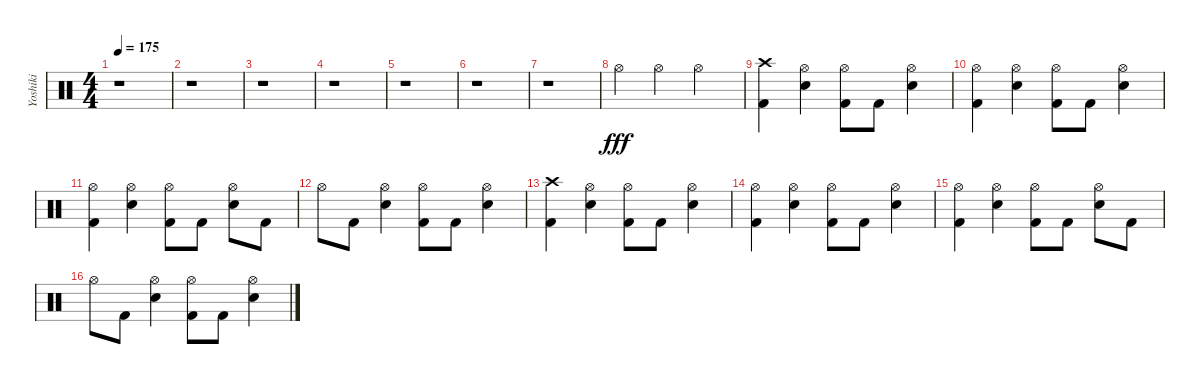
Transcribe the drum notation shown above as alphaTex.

\track ("Yoshiki" "Yoshiki") {instrument percussion}
\staff {score}
\articulation defaults
\ts (4 4)
\tempo 175
\clef neutral
\ks c
r.1{dy fff} |
r.1 |
r.1 |
r.1 |
r.1 |
r.1 |
r.1 |
"Hi-Hat (open)".4 "Hi-Hat (open)".4 "Hi-Hat (open)".2 |
("Crash high (hit)" "Kick (hit) 2").4 ("Hi-Hat (open)" "Snare (hit) 2").4 ("Hi-Hat (open)" "Kick (hit) 2").8 "Kick (hit) 2".8 ("Hi-Hat (open)" "Snare (hit) 2").4 |
("Hi-Hat (open)" "Kick (hit) 2").4 ("Hi-Hat (open)" "Snare (hit) 2").4 ("Hi-Hat (open)" "Kick (hit) 2").8 "Kick (hit) 2".8 ("Hi-Hat (open)" "Snare (hit) 2").4 |
("Hi-Hat (open)" "Kick (hit) 2").4 ("Hi-Hat (open)" "Snare (hit) 2").4 ("Hi-Hat (open)" "Kick (hit) 2").8 "Kick (hit) 2".8 ("Hi-Hat (open)" "Snare (hit) 2").8 "Kick (hit) 2".8 |
"Hi-Hat (open)".8 "Kick (hit) 2".8 ("Hi-Hat (open)" "Snare (hit) 2").4 ("Hi-Hat (open)" "Kick (hit) 2").8 "Kick (hit) 2".8 ("Hi-Hat (open)" "Snare (hit) 2").4 |
("Crash high (hit)" "Kick (hit) 2").4 ("Hi-Hat (open)" "Snare (hit) 2").4 ("Hi-Hat (open)" "Kick (hit) 2").8 "Kick (hit) 2".8 ("Hi-Hat (open)" "Snare (hit) 2").4 |
("Hi-Hat (open)" "Kick (hit) 2").4 ("Hi-Hat (open)" "Snare (hit) 2").4 ("Hi-Hat (open)" "Kick (hit) 2").8 "Kick (hit) 2".8 ("Hi-Hat (open)" "Snare (hit) 2").4 |
("Hi-Hat (open)" "Kick (hit) 2").4 ("Hi-Hat (open)" "Snare (hit) 2").4 ("Hi-Hat (open)" "Kick (hit) 2").8 "Kick (hit) 2".8 ("Hi-Hat (open)" "Snare (hit) 2").8 "Kick (hit) 2".8 |
"Hi-Hat (open)".8 "Kick (hit) 2".8 ("Hi-Hat (open)" "Snare (hit) 2").4 ("Hi-Hat (open)" "Kick (hit) 2").8 "Kick (hit) 2".8 ("Hi-Hat (open)" "Snare (hit) 2").4
